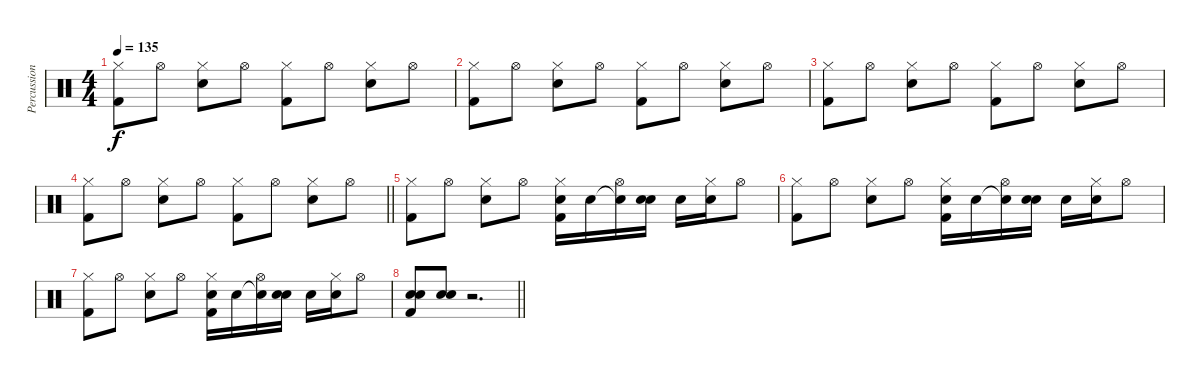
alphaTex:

\track ("Percussion" "Percussion") {instrument percussion}
\staff {score}
\articulation defaults
\ts (4 4)
\tempo 135
\clef neutral
\ks c
("Hi-Hat (closed)" "Kick (hit) 2").8{dy f} "Hi-Hat (open)".8 ("Hi-Hat (closed)" "Snare (hit) 2").8 "Hi-Hat (open)".8 ("Hi-Hat (closed)" "Kick (hit) 2").8 "Hi-Hat (open)".8 ("Hi-Hat (closed)" "Snare (hit) 2").8 "Hi-Hat (open)".8 |
("Hi-Hat (closed)" "Kick (hit) 2").8 "Hi-Hat (open)".8 ("Hi-Hat (closed)" "Snare (hit) 2").8 "Hi-Hat (open)".8 ("Hi-Hat (closed)" "Kick (hit) 2").8 "Hi-Hat (open)".8 ("Hi-Hat (closed)" "Snare (hit) 2").8 "Hi-Hat (open)".8 |
("Hi-Hat (closed)" "Kick (hit) 2").8 "Hi-Hat (open)".8 ("Hi-Hat (closed)" "Snare (hit) 2").8 "Hi-Hat (open)".8 ("Hi-Hat (closed)" "Kick (hit) 2").8 "Hi-Hat (open)".8 ("Hi-Hat (closed)" "Snare (hit) 2").8 "Hi-Hat (open)".8 |
\barLineRight lightlight
("Hi-Hat (closed)" "Kick (hit) 2").8 "Hi-Hat (open)".8 ("Hi-Hat (closed)" "Snare (hit) 2").8 "Hi-Hat (open)".8 ("Hi-Hat (closed)" "Kick (hit) 2").8 "Hi-Hat (open)".8 ("Hi-Hat (closed)" "Snare (hit) 2").8 "Hi-Hat (open)".8 |
("Hi-Hat (closed)" "Kick (hit) 2").8 "Hi-Hat (open)".8 ("Hi-Hat (closed)" "Snare (hit) 2").8 "Hi-Hat (open)".8 ("Electric Snare (hit)" "Hi-Hat (closed)" "Kick (hit) 2").16 "Electric Snare (hit)".16 ("Electric Snare (hit)"{t} "Hi-Hat (open)").16 ("Electric Snare (hit)" "Snare (hit) 2").16 "Electric Snare (hit)".16 ("Hi-Hat (closed)" "Snare (hit) 2").16 "Hi-Hat (open)".8 |
("Hi-Hat (closed)" "Kick (hit) 2").8 "Hi-Hat (open)".8 ("Hi-Hat (closed)" "Snare (hit) 2").8 "Hi-Hat (open)".8 ("Electric Snare (hit)" "Hi-Hat (closed)" "Kick (hit) 2").16 "Electric Snare (hit)".16 ("Electric Snare (hit)"{t} "Hi-Hat (open)").16 ("Electric Snare (hit)" "Snare (hit) 2").16 "Electric Snare (hit)".16 ("Hi-Hat (closed)" "Snare (hit) 2").16 "Hi-Hat (open)".8 |
("Hi-Hat (closed)" "Kick (hit) 2").8 "Hi-Hat (open)".8 ("Hi-Hat (closed)" "Snare (hit) 2").8 "Hi-Hat (open)".8 ("Electric Snare (hit)" "Hi-Hat (closed)" "Kick (hit) 2").16 "Electric Snare (hit)".16 ("Electric Snare (hit)"{t} "Hi-Hat (open)").16 ("Electric Snare (hit)" "Snare (hit) 2").16 "Electric Snare (hit)".16 ("Hi-Hat (closed)" "Snare (hit) 2").16 "Hi-Hat (open)".8 |
\barLineRight lightlight
("Snare (hit) 2" "Electric Snare (hit)" "Kick (hit) 2").8 ("Snare (hit) 2" "Electric Snare (hit)").8 r.2{d}
